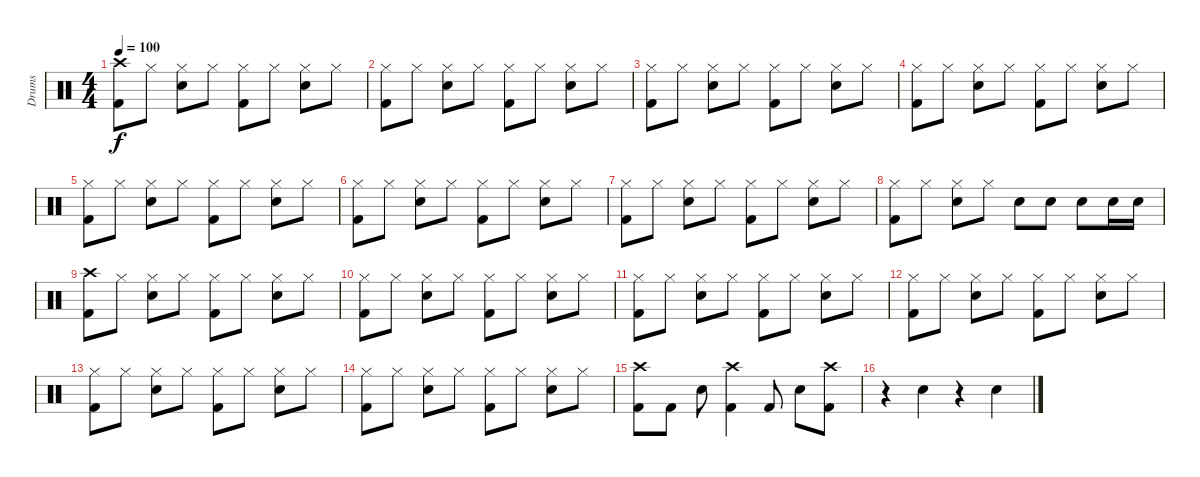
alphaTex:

\track ("Drums" "Drums") {instrument percussion}
\staff {score}
\articulation defaults
\ts (4 4)
\tempo 100
\clef neutral
\ks c
("Crash high (hit)" "Kick (hit) 2").8{dy f} "Hi-Hat (closed)".8 ("Hi-Hat (closed)" "Electric Snare (hit)").8 "Hi-Hat (closed)".8 ("Hi-Hat (closed)" "Kick (hit) 2").8 "Hi-Hat (closed)".8 ("Hi-Hat (closed)" "Electric Snare (hit)").8 "Hi-Hat (closed)".8 |
("Hi-Hat (closed)" "Kick (hit) 2").8 "Hi-Hat (closed)".8 ("Hi-Hat (closed)" "Electric Snare (hit)").8 "Hi-Hat (closed)".8 ("Hi-Hat (closed)" "Kick (hit) 2").8 "Hi-Hat (closed)".8 ("Hi-Hat (closed)" "Electric Snare (hit)").8 "Hi-Hat (closed)".8 |
("Hi-Hat (closed)" "Kick (hit) 2").8 "Hi-Hat (closed)".8 ("Hi-Hat (closed)" "Electric Snare (hit)").8 "Hi-Hat (closed)".8 ("Hi-Hat (closed)" "Kick (hit) 2").8 "Hi-Hat (closed)".8 ("Hi-Hat (closed)" "Electric Snare (hit)").8 "Hi-Hat (closed)".8 |
("Hi-Hat (closed)" "Kick (hit) 2").8 "Hi-Hat (closed)".8 ("Hi-Hat (closed)" "Electric Snare (hit)").8 "Hi-Hat (closed)".8 ("Hi-Hat (closed)" "Kick (hit) 2").8 "Hi-Hat (closed)".8 ("Hi-Hat (closed)" "Electric Snare (hit)").8 "Hi-Hat (closed)".8 |
("Hi-Hat (closed)" "Kick (hit) 2").8 "Hi-Hat (closed)".8 ("Hi-Hat (closed)" "Electric Snare (hit)").8 "Hi-Hat (closed)".8 ("Hi-Hat (closed)" "Kick (hit) 2").8 "Hi-Hat (closed)".8 ("Hi-Hat (closed)" "Electric Snare (hit)").8 "Hi-Hat (closed)".8 |
("Hi-Hat (closed)" "Kick (hit) 2").8 "Hi-Hat (closed)".8 ("Hi-Hat (closed)" "Electric Snare (hit)").8 "Hi-Hat (closed)".8 ("Hi-Hat (closed)" "Kick (hit) 2").8 "Hi-Hat (closed)".8 ("Hi-Hat (closed)" "Electric Snare (hit)").8 "Hi-Hat (closed)".8 |
("Hi-Hat (closed)" "Kick (hit) 2").8 "Hi-Hat (closed)".8 ("Hi-Hat (closed)" "Electric Snare (hit)").8 "Hi-Hat (closed)".8 ("Hi-Hat (closed)" "Kick (hit) 2").8 "Hi-Hat (closed)".8 ("Hi-Hat (closed)" "Electric Snare (hit)").8 "Hi-Hat (closed)".8 |
("Hi-Hat (closed)" "Kick (hit) 2").8 "Hi-Hat (closed)".8 ("Hi-Hat (closed)" "Electric Snare (hit)").8 "Hi-Hat (closed)".8 "Electric Snare (hit)".8 "Electric Snare (hit)".8 "Electric Snare (hit)".8 "Electric Snare (hit)".16 "Electric Snare (hit)".16 |
("Crash high (hit)" "Kick (hit) 2").8 "Hi-Hat (closed)".8 ("Hi-Hat (closed)" "Electric Snare (hit)").8 "Hi-Hat (closed)".8 ("Hi-Hat (closed)" "Kick (hit) 2").8 "Hi-Hat (closed)".8 ("Hi-Hat (closed)" "Electric Snare (hit)").8 "Hi-Hat (closed)".8 |
("Hi-Hat (closed)" "Kick (hit) 2").8 "Hi-Hat (closed)".8 ("Hi-Hat (closed)" "Electric Snare (hit)").8 "Hi-Hat (closed)".8 ("Hi-Hat (closed)" "Kick (hit) 2").8 "Hi-Hat (closed)".8 ("Hi-Hat (closed)" "Electric Snare (hit)").8 "Hi-Hat (closed)".8 |
("Hi-Hat (closed)" "Kick (hit) 2").8 "Hi-Hat (closed)".8 ("Hi-Hat (closed)" "Electric Snare (hit)").8 "Hi-Hat (closed)".8 ("Hi-Hat (closed)" "Kick (hit) 2").8 "Hi-Hat (closed)".8 ("Hi-Hat (closed)" "Electric Snare (hit)").8 "Hi-Hat (closed)".8 |
("Hi-Hat (closed)" "Kick (hit) 2").8 "Hi-Hat (closed)".8 ("Hi-Hat (closed)" "Electric Snare (hit)").8 "Hi-Hat (closed)".8 ("Hi-Hat (closed)" "Kick (hit) 2").8 "Hi-Hat (closed)".8 ("Hi-Hat (closed)" "Electric Snare (hit)").8 "Hi-Hat (closed)".8 |
("Hi-Hat (closed)" "Kick (hit) 2").8 "Hi-Hat (closed)".8 ("Hi-Hat (closed)" "Electric Snare (hit)").8 "Hi-Hat (closed)".8 ("Hi-Hat (closed)" "Kick (hit) 2").8 "Hi-Hat (closed)".8 ("Hi-Hat (closed)" "Electric Snare (hit)").8 "Hi-Hat (closed)".8 |
("Hi-Hat (closed)" "Kick (hit) 2").8 "Hi-Hat (closed)".8 ("Hi-Hat (closed)" "Electric Snare (hit)").8 "Hi-Hat (closed)".8 ("Hi-Hat (closed)" "Kick (hit) 2").8 "Hi-Hat (closed)".8 ("Hi-Hat (closed)" "Electric Snare (hit)").8 "Hi-Hat (closed)".8 |
("Crash high (hit)" "Kick (hit) 2").8 "Kick (hit) 2".8 "Electric Snare (hit)".8 ("Crash high (hit)" "Kick (hit) 2").4 "Kick (hit) 2".8 "Electric Snare (hit)".8 ("Crash high (hit)" "Kick (hit) 2").8 |
r.4 "Electric Snare (hit)".4 r.4 "Electric Snare (hit)".4
